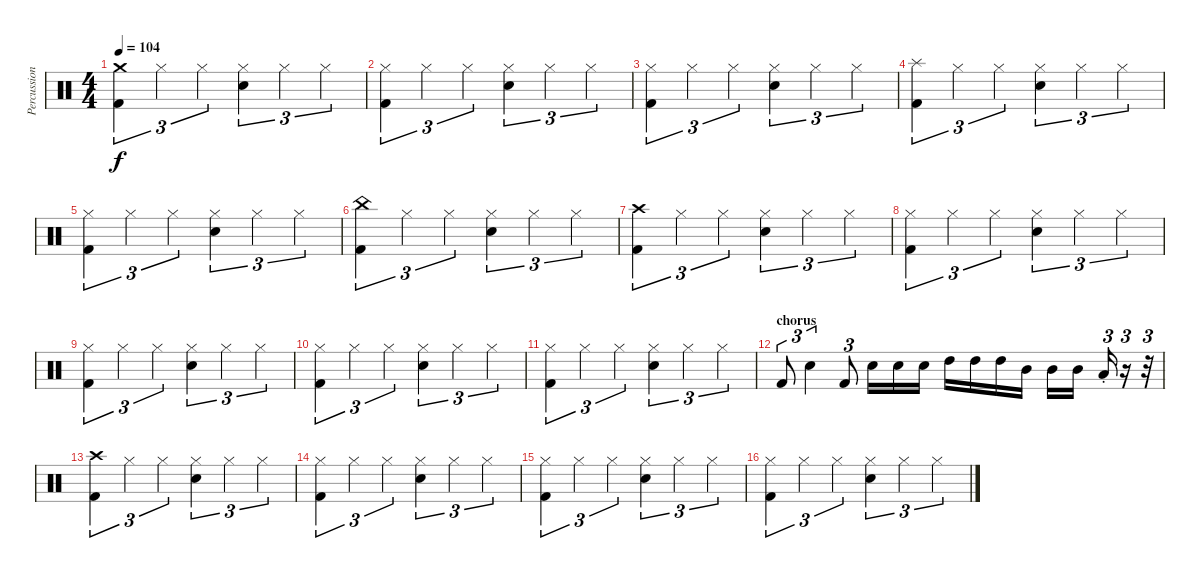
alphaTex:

\track ("Percussion" "Percussion") {instrument percussion}
\staff {score}
\articulation defaults
\ts (4 4)
\tempo 104
\clef neutral
\ks c
("Crash medium (hit)" "Kick (hit) 2").4{tu (3 2) dy f} "Hi-Hat (closed)".4{tu (3 2)} "Hi-Hat (closed)".4{tu (3 2)} ("Electric Snare (hit)" "Hi-Hat (closed)").4{tu (3 2)} "Hi-Hat (closed)".4{tu (3 2)} "Hi-Hat (closed)".4{tu (3 2)} |
("Hi-Hat (closed)" "Kick (hit) 2").4{tu (3 2)} "Hi-Hat (closed)".4{tu (3 2)} "Hi-Hat (closed)".4{tu (3 2)} ("Electric Snare (hit)" "Hi-Hat (closed)").4{tu (3 2)} "Hi-Hat (closed)".4{tu (3 2)} "Hi-Hat (closed)".4{tu (3 2)} |
("Hi-Hat (closed)" "Kick (hit) 2").4{tu (3 2)} "Hi-Hat (closed)".4{tu (3 2)} "Hi-Hat (closed)".4{tu (3 2)} ("Electric Snare (hit)" "Hi-Hat (closed)").4{tu (3 2)} "Hi-Hat (closed)".4{tu (3 2)} "Hi-Hat (closed)".4{tu (3 2)} |
("Splash (hit)" "Kick (hit) 2").4{tu (3 2)} "Hi-Hat (closed)".4{tu (3 2)} "Hi-Hat (closed)".4{tu (3 2)} ("Electric Snare (hit)" "Hi-Hat (closed)").4{tu (3 2)} "Hi-Hat (closed)".4{tu (3 2)} "Hi-Hat (closed)".4{tu (3 2)} |
("Hi-Hat (closed)" "Kick (hit) 2").4{tu (3 2)} "Hi-Hat (closed)".4{tu (3 2)} "Hi-Hat (closed)".4{tu (3 2)} ("Electric Snare (hit)" "Hi-Hat (closed)").4{tu (3 2)} "Hi-Hat (closed)".4{tu (3 2)} "Hi-Hat (closed)".4{tu (3 2)} |
("China (hit)" "Kick (hit) 2").4{tu (3 2)} "Hi-Hat (closed)".4{tu (3 2)} "Hi-Hat (closed)".4{tu (3 2)} ("Electric Snare (hit)" "Hi-Hat (closed)").4{tu (3 2)} "Hi-Hat (closed)".4{tu (3 2)} "Hi-Hat (closed)".4{tu (3 2)} |
("Crash high (hit)" "Kick (hit) 2").4{tu (3 2)} "Hi-Hat (closed)".4{tu (3 2)} "Hi-Hat (closed)".4{tu (3 2)} ("Electric Snare (hit)" "Hi-Hat (closed)").4{tu (3 2)} "Hi-Hat (closed)".4{tu (3 2)} "Hi-Hat (closed)".4{tu (3 2)} |
("Hi-Hat (closed)" "Kick (hit) 2").4{tu (3 2)} "Hi-Hat (closed)".4{tu (3 2)} "Hi-Hat (closed)".4{tu (3 2)} ("Electric Snare (hit)" "Hi-Hat (closed)").4{tu (3 2)} "Hi-Hat (closed)".4{tu (3 2)} "Hi-Hat (closed)".4{tu (3 2)} |
("Hi-Hat (closed)" "Kick (hit) 2").4{tu (3 2)} "Hi-Hat (closed)".4{tu (3 2)} "Hi-Hat (closed)".4{tu (3 2)} ("Electric Snare (hit)" "Hi-Hat (closed)").4{tu (3 2)} "Hi-Hat (closed)".4{tu (3 2)} "Hi-Hat (closed)".4{tu (3 2)} |
("Hi-Hat (closed)" "Kick (hit) 2").4{tu (3 2)} "Hi-Hat (closed)".4{tu (3 2)} "Hi-Hat (closed)".4{tu (3 2)} ("Electric Snare (hit)" "Hi-Hat (closed)").4{tu (3 2)} "Hi-Hat (closed)".4{tu (3 2)} "Hi-Hat (closed)".4{tu (3 2)} |
("Hi-Hat (closed)" "Kick (hit) 2").4{tu (3 2)} "Hi-Hat (closed)".4{tu (3 2)} "Hi-Hat (closed)".4{tu (3 2)} ("Electric Snare (hit)" "Hi-Hat (closed)").4{tu (3 2)} "Hi-Hat (closed)".4{tu (3 2)} "Hi-Hat (closed)".4{tu (3 2)} |
\section ("" "chorus")
"Kick (hit) 2".8{tu (3 2)} "Electric Snare (hit)".4{tu (3 2)} "Kick (hit) 2".8{tu (3 2)} "Electric Snare (hit)".16 "Electric Snare (hit)".16 "Electric Snare (hit)".16 "High Tom (hit)".16 "High Tom (hit)".16 "High Tom (hit)".16 "Mid Tom (hit)".16 "Mid Tom (hit)".16 "Mid Tom (hit)".16 "Low Tom (hit)"{st}.16{tu (3 2)} r.16{tu (3 2)} r.32{tu (3 2)} |
("Crash high (hit)" "Kick (hit) 2").4{tu (3 2)} "Hi-Hat (closed)".4{tu (3 2)} "Hi-Hat (closed)".4{tu (3 2)} ("Electric Snare (hit)" "Hi-Hat (closed)").4{tu (3 2)} "Hi-Hat (closed)".4{tu (3 2)} "Hi-Hat (closed)".4{tu (3 2)} |
("Hi-Hat (closed)" "Kick (hit) 2").4{tu (3 2)} "Hi-Hat (closed)".4{tu (3 2)} "Hi-Hat (closed)".4{tu (3 2)} ("Electric Snare (hit)" "Hi-Hat (closed)").4{tu (3 2)} "Hi-Hat (closed)".4{tu (3 2)} "Hi-Hat (closed)".4{tu (3 2)} |
("Hi-Hat (closed)" "Kick (hit) 2").4{tu (3 2)} "Hi-Hat (closed)".4{tu (3 2)} "Hi-Hat (closed)".4{tu (3 2)} ("Electric Snare (hit)" "Hi-Hat (closed)").4{tu (3 2)} "Hi-Hat (closed)".4{tu (3 2)} "Hi-Hat (closed)".4{tu (3 2)} |
("Hi-Hat (closed)" "Kick (hit) 2").4{tu (3 2)} "Hi-Hat (closed)".4{tu (3 2)} "Hi-Hat (closed)".4{tu (3 2)} ("Electric Snare (hit)" "Hi-Hat (closed)").4{tu (3 2)} "Hi-Hat (closed)".4{tu (3 2)} "Hi-Hat (closed)".4{tu (3 2)}
